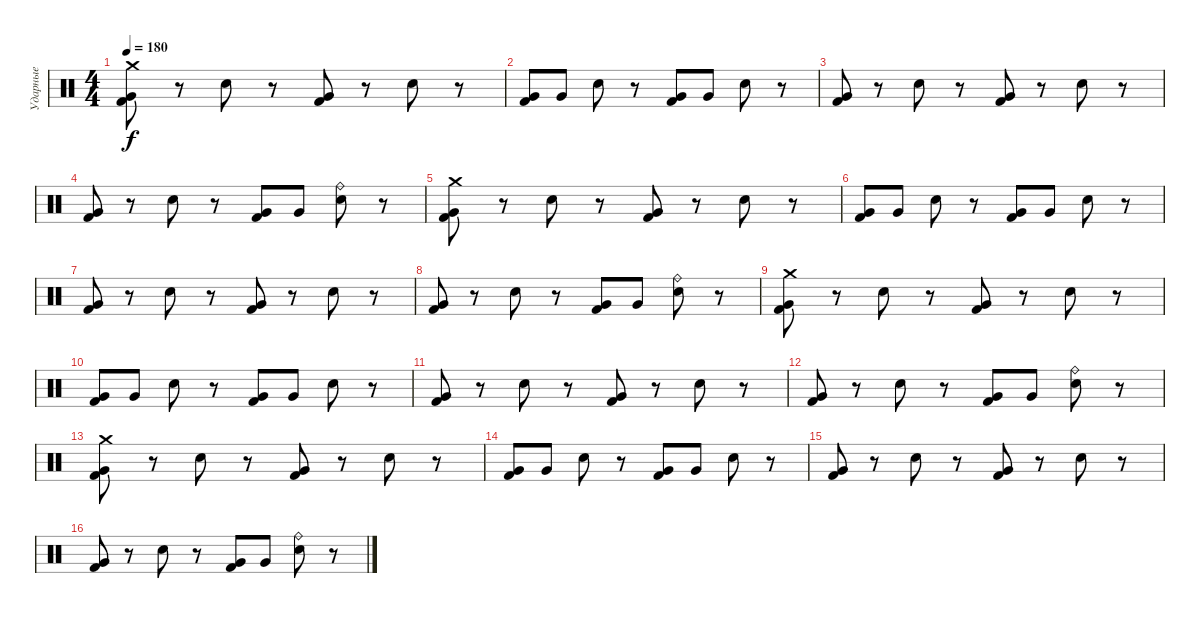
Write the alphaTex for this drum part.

\track ("Ударные" "Ударные") {instrument percussion}
\staff {score}
\articulation defaults
\ts (4 4)
\tempo 180
\clef neutral
\ks c
("Crash medium (hit)" "Very Low Tom (hit)" "Kick (hit) 2").8{dy f} r.8 "Electric Snare (hit)".8 r.8 ("Very Low Tom (hit)" "Kick (hit) 2").8 r.8 "Electric Snare (hit)".8 r.8 |
("Very Low Tom (hit)" "Kick (hit) 2").8 "Very Low Tom (hit)".8 "Electric Snare (hit)".8 r.8 ("Very Low Tom (hit)" "Kick (hit) 2").8 "Very Low Tom (hit)".8 "Electric Snare (hit)".8 r.8 |
("Very Low Tom (hit)" "Kick (hit) 2").8 r.8 "Electric Snare (hit)".8 r.8 ("Very Low Tom (hit)" "Kick (hit) 2").8 r.8 "Electric Snare (hit)".8 r.8 |
("Very Low Tom (hit)" "Kick (hit) 2").8 r.8 "Electric Snare (hit)".8 r.8 ("Very Low Tom (hit)" "Kick (hit) 2").8 "Very Low Tom (hit)".8 ("Ride (bell)" "Electric Snare (hit)").8 r.8 |
("Crash medium (hit)" "Very Low Tom (hit)" "Kick (hit) 2").8 r.8 "Electric Snare (hit)".8 r.8 ("Very Low Tom (hit)" "Kick (hit) 2").8 r.8 "Electric Snare (hit)".8 r.8 |
("Very Low Tom (hit)" "Kick (hit) 2").8 "Very Low Tom (hit)".8 "Electric Snare (hit)".8 r.8 ("Very Low Tom (hit)" "Kick (hit) 2").8 "Very Low Tom (hit)".8 "Electric Snare (hit)".8 r.8 |
("Very Low Tom (hit)" "Kick (hit) 2").8 r.8 "Electric Snare (hit)".8 r.8 ("Very Low Tom (hit)" "Kick (hit) 2").8 r.8 "Electric Snare (hit)".8 r.8 |
("Very Low Tom (hit)" "Kick (hit) 2").8 r.8 "Electric Snare (hit)".8 r.8 ("Very Low Tom (hit)" "Kick (hit) 2").8 "Very Low Tom (hit)".8 ("Ride (bell)" "Electric Snare (hit)").8 r.8 |
("Crash medium (hit)" "Very Low Tom (hit)" "Kick (hit) 2").8 r.8 "Electric Snare (hit)".8 r.8 ("Very Low Tom (hit)" "Kick (hit) 2").8 r.8 "Electric Snare (hit)".8 r.8 |
("Very Low Tom (hit)" "Kick (hit) 2").8 "Very Low Tom (hit)".8 "Electric Snare (hit)".8 r.8 ("Very Low Tom (hit)" "Kick (hit) 2").8 "Very Low Tom (hit)".8 "Electric Snare (hit)".8 r.8 |
("Very Low Tom (hit)" "Kick (hit) 2").8 r.8 "Electric Snare (hit)".8 r.8 ("Very Low Tom (hit)" "Kick (hit) 2").8 r.8 "Electric Snare (hit)".8 r.8 |
("Very Low Tom (hit)" "Kick (hit) 2").8 r.8 "Electric Snare (hit)".8 r.8 ("Very Low Tom (hit)" "Kick (hit) 2").8 "Very Low Tom (hit)".8 ("Ride (bell)" "Electric Snare (hit)").8 r.8 |
("Crash medium (hit)" "Very Low Tom (hit)" "Kick (hit) 2").8 r.8 "Electric Snare (hit)".8 r.8 ("Very Low Tom (hit)" "Kick (hit) 2").8 r.8 "Electric Snare (hit)".8 r.8 |
("Very Low Tom (hit)" "Kick (hit) 2").8 "Very Low Tom (hit)".8 "Electric Snare (hit)".8 r.8 ("Very Low Tom (hit)" "Kick (hit) 2").8 "Very Low Tom (hit)".8 "Electric Snare (hit)".8 r.8 |
("Very Low Tom (hit)" "Kick (hit) 2").8 r.8 "Electric Snare (hit)".8 r.8 ("Very Low Tom (hit)" "Kick (hit) 2").8 r.8 "Electric Snare (hit)".8 r.8 |
("Very Low Tom (hit)" "Kick (hit) 2").8 r.8 "Electric Snare (hit)".8 r.8 ("Very Low Tom (hit)" "Kick (hit) 2").8 "Very Low Tom (hit)".8 ("Ride (bell)" "Electric Snare (hit)").8 r.8
